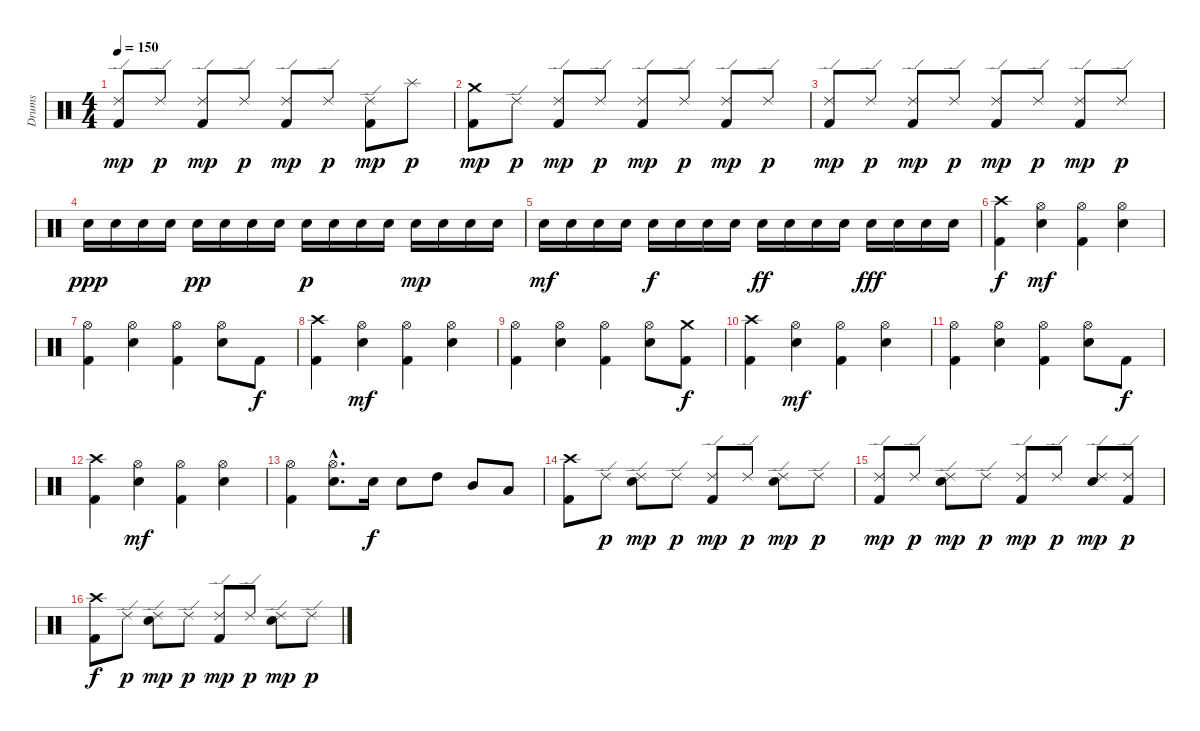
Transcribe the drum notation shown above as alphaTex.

\track ("Drums" "Drums") {instrument percussion}
\staff {score}
\articulation defaults
\ts (4 4)
\tempo 150
\clef neutral
\ks c
("Ride (edge) 2" "Kick (hit) 2").8{dy mp} "Ride (edge) 2".8{dy p} ("Ride (edge) 2" "Kick (hit) 2").8{dy mp} "Ride (edge) 2".8{dy p} ("Ride (edge) 2" "Kick (hit) 2").8{dy mp} "Ride (edge) 2".8{dy p} ("Ride (edge) 2" "Kick (hit) 2").8{dy mp} "Splash (hit)".8{dy p} |
("Crash medium (hit)" "Kick (hit) 2").8{dy mp} "Ride (edge) 2".8{dy p} ("Ride (edge) 2" "Kick (hit) 2").8{dy mp} "Ride (edge) 2".8{dy p} ("Ride (edge) 2" "Kick (hit) 2").8{dy mp} "Ride (edge) 2".8{dy p} ("Ride (edge) 2" "Kick (hit) 2").8{dy mp} "Ride (edge) 2".8{dy p} |
("Ride (edge) 2" "Kick (hit) 2").8{dy mp} "Ride (edge) 2".8{dy p} ("Ride (edge) 2" "Kick (hit) 2").8{dy mp} "Ride (edge) 2".8{dy p} ("Ride (edge) 2" "Kick (hit) 2").8{dy mp} "Ride (edge) 2".8{dy p} ("Ride (edge) 2" "Kick (hit) 2").8{dy mp} "Ride (edge) 2".8{dy p} |
"Electric Snare (hit)".16{dy ppp} "Electric Snare (hit)".16 "Electric Snare (hit)".16 "Electric Snare (hit)".16 "Electric Snare (hit)".16{dy pp} "Electric Snare (hit)".16 "Electric Snare (hit)".16 "Electric Snare (hit)".16 "Electric Snare (hit)".16{dy p} "Electric Snare (hit)".16 "Electric Snare (hit)".16 "Electric Snare (hit)".16 "Electric Snare (hit)".16{dy mp} "Electric Snare (hit)".16 "Electric Snare (hit)".16 "Electric Snare (hit)".16 |
"Electric Snare (hit)".16{dy mf} "Electric Snare (hit)".16 "Electric Snare (hit)".16 "Electric Snare (hit)".16 "Electric Snare (hit)".16{dy f} "Electric Snare (hit)".16 "Electric Snare (hit)".16 "Electric Snare (hit)".16 "Electric Snare (hit)".16{dy ff} "Electric Snare (hit)".16 "Electric Snare (hit)".16 "Electric Snare (hit)".16 "Electric Snare (hit)".16{dy fff} "Electric Snare (hit)".16 "Electric Snare (hit)".16 "Electric Snare (hit)".16 |
("Crash high (hit)" "Kick (hit) 2").4{dy f} ("Hi-Hat (open)" "Electric Snare (hit)").4{dy mf} ("Hi-Hat (open)" "Kick (hit) 2").4 ("Hi-Hat (open)" "Electric Snare (hit)").4 |
("Hi-Hat (open)" "Kick (hit) 2").4 ("Hi-Hat (open)" "Electric Snare (hit)").4 ("Hi-Hat (open)" "Kick (hit) 2").4 ("Hi-Hat (open)" "Electric Snare (hit)").8 "Kick (hit) 2".8{dy f} |
("Crash high (hit)" "Kick (hit) 2").4 ("Hi-Hat (open)" "Electric Snare (hit)").4{dy mf} ("Hi-Hat (open)" "Kick (hit) 2").4 ("Hi-Hat (open)" "Electric Snare (hit)").4 |
("Hi-Hat (open)" "Kick (hit) 2").4 ("Hi-Hat (open)" "Electric Snare (hit)").4 ("Hi-Hat (open)" "Kick (hit) 2").4 ("Hi-Hat (open)" "Electric Snare (hit)").8 ("Crash medium (hit)" "Kick (hit) 2").8{dy f} |
("Crash high (hit)" "Kick (hit) 2").4 ("Hi-Hat (open)" "Electric Snare (hit)").4{dy mf} ("Hi-Hat (open)" "Kick (hit) 2").4 ("Hi-Hat (open)" "Electric Snare (hit)").4 |
("Hi-Hat (open)" "Kick (hit) 2").4 ("Hi-Hat (open)" "Electric Snare (hit)").4 ("Hi-Hat (open)" "Kick (hit) 2").4 ("Hi-Hat (open)" "Electric Snare (hit)").8 "Kick (hit) 2".8{dy f} |
("Crash high (hit)" "Kick (hit) 2").4 ("Hi-Hat (open)" "Electric Snare (hit)").4{dy mf} ("Hi-Hat (open)" "Kick (hit) 2").4 ("Hi-Hat (open)" "Electric Snare (hit)").4 |
("Hi-Hat (open)" "Kick (hit) 2").4 ("Hi-Hat (open)"{hac} "Electric Snare (hit)"{hac}).8{d} "Electric Snare (hit)".16{dy f} "Electric Snare (hit)".8 "High Tom (hit)".8 "Mid Tom (hit)".8 "Low Tom (hit)".8 |
("Crash high (hit)" "Kick (hit) 2").8 "Ride (edge) 2".8{dy p} ("Ride (edge) 2" "Electric Snare (hit)").8{dy mp} "Ride (edge) 2".8{dy p} ("Ride (edge) 2" "Kick (hit) 2").8{dy mp} "Ride (edge) 2".8{dy p} ("Ride (edge) 2" "Electric Snare (hit)").8{dy mp} "Ride (edge) 2".8{dy p} |
("Ride (edge) 2" "Kick (hit) 2").8{dy mp} "Ride (edge) 2".8{dy p} ("Ride (edge) 2" "Electric Snare (hit)").8{dy mp} "Ride (edge) 2".8{dy p} ("Ride (edge) 2" "Kick (hit) 2").8{dy mp} "Ride (edge) 2".8{dy p} ("Ride (edge) 2" "Electric Snare (hit)").8{dy mp} ("Ride (edge) 2" "Kick (hit) 2").8{dy p} |
("Crash high (hit)" "Kick (hit) 2").8{dy f} "Ride (edge) 2".8{dy p} ("Ride (edge) 2" "Electric Snare (hit)").8{dy mp} "Ride (edge) 2".8{dy p} ("Ride (edge) 2" "Kick (hit) 2").8{dy mp} "Ride (edge) 2".8{dy p} ("Ride (edge) 2" "Electric Snare (hit)").8{dy mp} "Ride (edge) 2".8{dy p}
